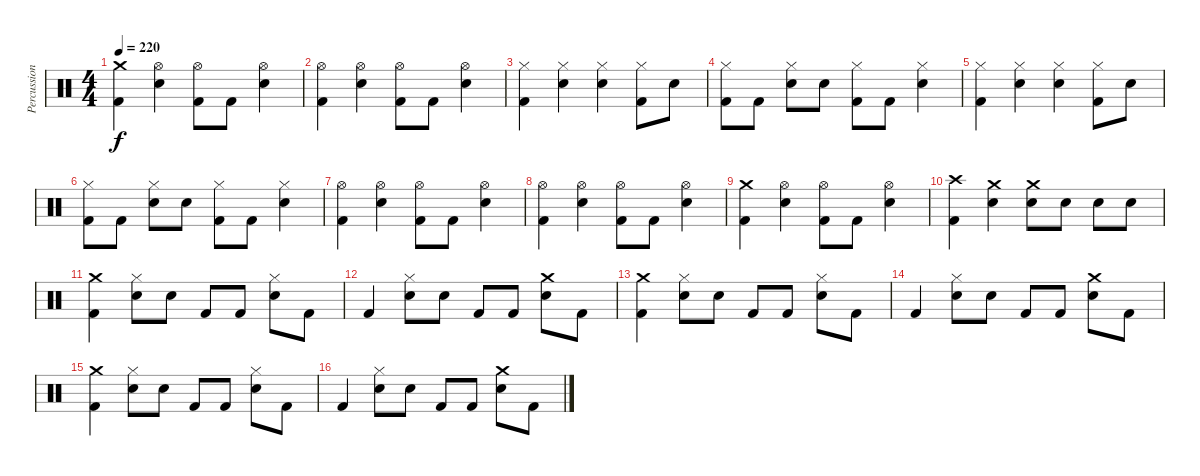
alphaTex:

\track ("Percussion" "Percussion") {instrument percussion}
\staff {score}
\articulation defaults
\ts (4 4)
\tempo 220
\clef neutral
\ks c
("Crash medium (hit)" "Kick (hit) 2").4{dy f} ("Hi-Hat (open)" "Snare (hit) 2").4 ("Hi-Hat (open)" "Kick (hit) 2").8 "Kick (hit) 2".8 ("Hi-Hat (open)" "Snare (hit) 2").4 |
("Hi-Hat (open)" "Kick (hit) 2").4 ("Hi-Hat (open)" "Snare (hit) 2").4 ("Hi-Hat (open)" "Kick (hit) 2").8 "Kick (hit) 2".8 ("Hi-Hat (open)" "Snare (hit) 2").4 |
("Hi-Hat (closed)" "Kick (hit) 2").4 ("Hi-Hat (closed)" "Snare (hit) 2").4 ("Hi-Hat (closed)" "Snare (hit) 2").4 ("Hi-Hat (closed)" "Kick (hit) 2").8 "Snare (hit) 2".8 |
("Hi-Hat (closed)" "Kick (hit) 2").8 "Kick (hit) 2".8 ("Hi-Hat (closed)" "Snare (hit) 2").8 "Snare (hit) 2".8 ("Hi-Hat (closed)" "Kick (hit) 2").8 "Kick (hit) 2".8 ("Hi-Hat (closed)" "Snare (hit) 2").4 |
("Hi-Hat (closed)" "Kick (hit) 2").4 ("Hi-Hat (closed)" "Snare (hit) 2").4 ("Hi-Hat (closed)" "Snare (hit) 2").4 ("Hi-Hat (closed)" "Kick (hit) 2").8 "Snare (hit) 2".8 |
("Hi-Hat (closed)" "Kick (hit) 2").8 "Kick (hit) 2".8 ("Hi-Hat (closed)" "Snare (hit) 2").8 "Snare (hit) 2".8 ("Hi-Hat (closed)" "Kick (hit) 2").8 "Kick (hit) 2".8 ("Hi-Hat (closed)" "Snare (hit) 2").4 |
("Hi-Hat (open)" "Kick (hit) 2").4 ("Hi-Hat (open)" "Snare (hit) 2").4 ("Hi-Hat (open)" "Kick (hit) 2").8 "Kick (hit) 2".8 ("Hi-Hat (open)" "Snare (hit) 2").4 |
("Hi-Hat (open)" "Kick (hit) 2").4 ("Hi-Hat (open)" "Snare (hit) 2").4 ("Hi-Hat (open)" "Kick (hit) 2").8 "Kick (hit) 2".8 ("Hi-Hat (open)" "Snare (hit) 2").4 |
("Crash medium (hit)" "Kick (hit) 2").4 ("Hi-Hat (open)" "Snare (hit) 2").4 ("Hi-Hat (open)" "Kick (hit) 2").8 "Kick (hit) 2".8 ("Hi-Hat (open)" "Snare (hit) 2").4 |
("Crash high (hit)" "Kick (hit) 2").4 ("Crash medium (hit)" "Snare (hit) 2").4 ("Crash medium (hit)" "Snare (hit) 2").8 "Snare (hit) 2".8 "Snare (hit) 2".8 "Snare (hit) 2".8 |
("Crash medium (hit)" "Kick (hit) 2").4 ("Hi-Hat (closed)" "Snare (hit) 2").8 "Snare (hit) 2".8 "Kick (hit) 2".8 "Kick (hit) 2".8 ("Hi-Hat (closed)" "Snare (hit) 2").8 "Kick (hit) 2".8 |
"Kick (hit) 2".4 ("Hi-Hat (closed)" "Snare (hit) 2").8 "Snare (hit) 2".8 "Kick (hit) 2".8 "Kick (hit) 2".8 ("Crash medium (hit)" "Snare (hit) 2").8 "Kick (hit) 2".8 |
("Crash medium (hit)" "Kick (hit) 2").4 ("Hi-Hat (closed)" "Snare (hit) 2").8 "Snare (hit) 2".8 "Kick (hit) 2".8 "Kick (hit) 2".8 ("Hi-Hat (closed)" "Snare (hit) 2").8 "Kick (hit) 2".8 |
"Kick (hit) 2".4 ("Hi-Hat (closed)" "Snare (hit) 2").8 "Snare (hit) 2".8 "Kick (hit) 2".8 "Kick (hit) 2".8 ("Crash medium (hit)" "Snare (hit) 2").8 "Kick (hit) 2".8 |
("Crash medium (hit)" "Kick (hit) 2").4 ("Hi-Hat (closed)" "Snare (hit) 2").8 "Snare (hit) 2".8 "Kick (hit) 2".8 "Kick (hit) 2".8 ("Hi-Hat (closed)" "Snare (hit) 2").8 "Kick (hit) 2".8 |
"Kick (hit) 2".4 ("Hi-Hat (closed)" "Snare (hit) 2").8 "Snare (hit) 2".8 "Kick (hit) 2".8 "Kick (hit) 2".8 ("Crash medium (hit)" "Snare (hit) 2").8 "Kick (hit) 2".8
